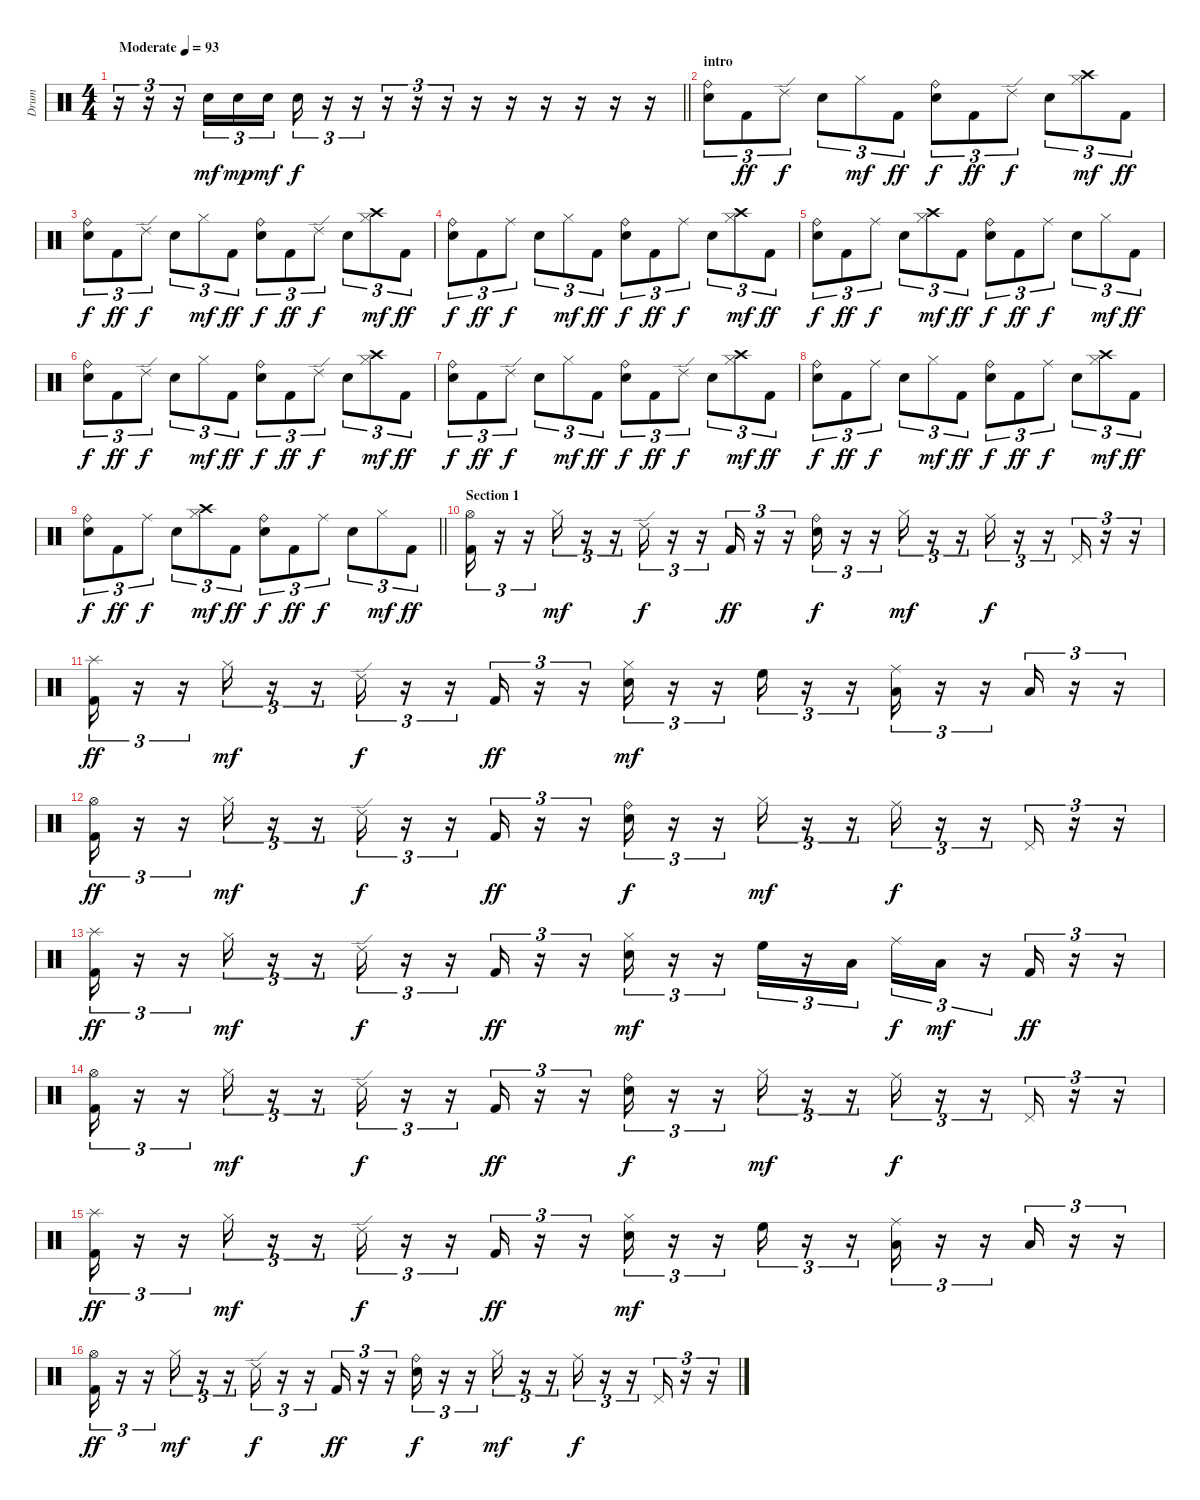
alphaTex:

\track ("Drum" "Drum") {instrument percussion}
\staff {score}
\articulation defaults
\ts (4 4)
\tempo (93 "Moderate")
\clef neutral
\barLineRight lightlight
\ks c
r.16{tu (3 2) dy mf} r.16{tu (3 2)} r.16{tu (3 2)} "Electric Snare (hit)".16{tu (3 2)} "Electric Snare (hit)".16{tu (3 2) dy mp} "Electric Snare (hit)".16{tu (3 2) dy mf} "Electric Snare (hit)".16{tu (3 2) dy f} r.16{tu (3 2)} r.16{tu (3 2)} r.16{tu (3 2)} r.16{tu (3 2)} r.16{tu (3 2)} r.16 r.16 r.16 r.16 r.16 r.16 |
\section ("" "intro")
("Electric Snare (hit)" "Ride (bell)").8{tu (3 2)} "Kick (hit) 2".8{tu (3 2) dy ff} "Ride (edge) 2".8{tu (3 2) dy f} "Electric Snare (hit)".8{tu (3 2)} "Hi-Hat (closed)".8{tu (3 2) dy mf} "Kick (hit) 2".8{tu (3 2) dy ff} ("Electric Snare (hit)" "Ride (bell)").8{tu (3 2) dy f} "Kick (hit) 2".8{tu (3 2) dy ff} "Ride (edge) 2".8{tu (3 2) dy f} "Electric Snare (hit)".8{tu (3 2)} ("Hi-Hat (closed)" "Crash high (hit)").8{tu (3 2) dy mf} "Kick (hit) 2".8{tu (3 2) dy ff} |
("Electric Snare (hit)" "Ride (bell)").8{tu (3 2) dy f} "Kick (hit) 2".8{tu (3 2) dy ff} "Ride (edge) 2".8{tu (3 2) dy f} "Electric Snare (hit)".8{tu (3 2)} "Hi-Hat (closed)".8{tu (3 2) dy mf} "Kick (hit) 2".8{tu (3 2) dy ff} ("Electric Snare (hit)" "Ride (bell)").8{tu (3 2) dy f} "Kick (hit) 2".8{tu (3 2) dy ff} "Ride (edge) 2".8{tu (3 2) dy f} "Electric Snare (hit)".8{tu (3 2)} ("Hi-Hat (closed)" "Crash high (hit)").8{tu (3 2) dy mf} "Kick (hit) 2".8{tu (3 2) dy ff} |
("Electric Snare (hit)" "Ride (bell)").8{tu (3 2) dy f} "Kick (hit) 2".8{tu (3 2) dy ff} "Ride (middle)".8{tu (3 2) dy f} "Electric Snare (hit)".8{tu (3 2)} "Hi-Hat (closed)".8{tu (3 2) dy mf} "Kick (hit) 2".8{tu (3 2) dy ff} ("Electric Snare (hit)" "Ride (bell)").8{tu (3 2) dy f} "Kick (hit) 2".8{tu (3 2) dy ff} "Ride (middle)".8{tu (3 2) dy f} "Electric Snare (hit)".8{tu (3 2)} ("Hi-Hat (closed)" "Crash high (hit)").8{tu (3 2) dy mf} "Kick (hit) 2".8{tu (3 2) dy ff} |
("Electric Snare (hit)" "Ride (bell)").8{tu (3 2) dy f} "Kick (hit) 2".8{tu (3 2) dy ff} "Ride (middle)".8{tu (3 2) dy f} "Electric Snare (hit)".8{tu (3 2)} ("Hi-Hat (closed)" "Crash high (hit)").8{tu (3 2) dy mf} "Kick (hit) 2".8{tu (3 2) dy ff} ("Electric Snare (hit)" "Ride (bell)").8{tu (3 2) dy f} "Kick (hit) 2".8{tu (3 2) dy ff} "Ride (middle)".8{tu (3 2) dy f} "Electric Snare (hit)".8{tu (3 2)} "Hi-Hat (closed)".8{tu (3 2) dy mf} "Kick (hit) 2".8{tu (3 2) dy ff} |
("Electric Snare (hit)" "Ride (bell)").8{tu (3 2) dy f} "Kick (hit) 2".8{tu (3 2) dy ff} "Ride (edge) 2".8{tu (3 2) dy f} "Electric Snare (hit)".8{tu (3 2)} "Hi-Hat (closed)".8{tu (3 2) dy mf} "Kick (hit) 2".8{tu (3 2) dy ff} ("Electric Snare (hit)" "Ride (bell)").8{tu (3 2) dy f} "Kick (hit) 2".8{tu (3 2) dy ff} "Ride (edge) 2".8{tu (3 2) dy f} "Electric Snare (hit)".8{tu (3 2)} ("Hi-Hat (closed)" "Crash high (hit)").8{tu (3 2) dy mf} "Kick (hit) 2".8{tu (3 2) dy ff} |
("Electric Snare (hit)" "Ride (bell)").8{tu (3 2) dy f} "Kick (hit) 2".8{tu (3 2) dy ff} "Ride (edge) 2".8{tu (3 2) dy f} "Electric Snare (hit)".8{tu (3 2)} "Hi-Hat (closed)".8{tu (3 2) dy mf} "Kick (hit) 2".8{tu (3 2) dy ff} ("Electric Snare (hit)" "Ride (bell)").8{tu (3 2) dy f} "Kick (hit) 2".8{tu (3 2) dy ff} "Ride (edge) 2".8{tu (3 2) dy f} "Electric Snare (hit)".8{tu (3 2)} ("Hi-Hat (closed)" "Crash high (hit)").8{tu (3 2) dy mf} "Kick (hit) 2".8{tu (3 2) dy ff} |
("Electric Snare (hit)" "Ride (bell)").8{tu (3 2) dy f} "Kick (hit) 2".8{tu (3 2) dy ff} "Ride (middle)".8{tu (3 2) dy f} "Electric Snare (hit)".8{tu (3 2)} "Hi-Hat (closed)".8{tu (3 2) dy mf} "Kick (hit) 2".8{tu (3 2) dy ff} ("Electric Snare (hit)" "Ride (bell)").8{tu (3 2) dy f} "Kick (hit) 2".8{tu (3 2) dy ff} "Ride (middle)".8{tu (3 2) dy f} "Electric Snare (hit)".8{tu (3 2)} ("Hi-Hat (closed)" "Crash high (hit)").8{tu (3 2) dy mf} "Kick (hit) 2".8{tu (3 2) dy ff} |
\barLineRight lightlight
("Electric Snare (hit)" "Ride (bell)").8{tu (3 2) dy f} "Kick (hit) 2".8{tu (3 2) dy ff} "Ride (middle)".8{tu (3 2) dy f} "Electric Snare (hit)".8{tu (3 2)} ("Hi-Hat (closed)" "Crash high (hit)").8{tu (3 2) dy mf} "Kick (hit) 2".8{tu (3 2) dy ff} ("Electric Snare (hit)" "Ride (bell)").8{tu (3 2) dy f} "Kick (hit) 2".8{tu (3 2) dy ff} "Ride (middle)".8{tu (3 2) dy f} "Electric Snare (hit)".8{tu (3 2)} "Hi-Hat (closed)".8{tu (3 2) dy mf} "Kick (hit) 2".8{tu (3 2) dy ff} |
\section ("" "Section 1")
("Kick (hit) 2" "Hi-Hat (open)").16{tu (3 2)} r.16{tu (3 2)} r.16{tu (3 2)} "Hi-Hat (closed)".16{tu (3 2) dy mf} r.16{tu (3 2)} r.16{tu (3 2)} "Ride (edge) 2".16{tu (3 2) dy f} r.16{tu (3 2)} r.16{tu (3 2)} "Kick (hit) 2".16{tu (3 2) dy ff} r.16{tu (3 2)} r.16{tu (3 2)} ("Electric Snare (hit)" "Ride (bell)").16{tu (3 2) dy f} r.16{tu (3 2)} r.16{tu (3 2)} "Hi-Hat (closed)".16{tu (3 2) dy mf} r.16{tu (3 2)} r.16{tu (3 2)} "Ride (middle)".16{tu (3 2) dy f} r.16{tu (3 2)} r.16{tu (3 2)} "Pedal Hi-Hat (hit)".16{tu (3 2)} r.16{tu (3 2)} r.16{tu (3 2)} |
("Kick (hit) 2" "Splash (hit)").16{tu (3 2) dy ff} r.16{tu (3 2)} r.16{tu (3 2)} "Hi-Hat (closed)".16{tu (3 2) dy mf} r.16{tu (3 2)} r.16{tu (3 2)} "Ride (edge) 2".16{tu (3 2) dy f} r.16{tu (3 2)} r.16{tu (3 2)} "Kick (hit) 2".16{tu (3 2) dy ff} r.16{tu (3 2)} r.16{tu (3 2)} ("Electric Snare (hit)" "Hi-Hat (closed)").16{tu (3 2) dy mf} r.16{tu (3 2)} r.16{tu (3 2)} "High Floor Tom (hit)".16{tu (3 2)} r.16{tu (3 2)} r.16{tu (3 2)} ("Low Tom (hit)" "Ride (middle)").16{tu (3 2)} r.16{tu (3 2)} r.16{tu (3 2)} "Low Floor Tom (hit)".16{tu (3 2)} r.16{tu (3 2)} r.16{tu (3 2)} |
("Kick (hit) 2" "Hi-Hat (open)").16{tu (3 2) dy ff} r.16{tu (3 2)} r.16{tu (3 2)} "Hi-Hat (closed)".16{tu (3 2) dy mf} r.16{tu (3 2)} r.16{tu (3 2)} "Ride (edge) 2".16{tu (3 2) dy f} r.16{tu (3 2)} r.16{tu (3 2)} "Kick (hit) 2".16{tu (3 2) dy ff} r.16{tu (3 2)} r.16{tu (3 2)} ("Electric Snare (hit)" "Ride (bell)").16{tu (3 2) dy f} r.16{tu (3 2)} r.16{tu (3 2)} "Hi-Hat (closed)".16{tu (3 2) dy mf} r.16{tu (3 2)} r.16{tu (3 2)} "Ride (middle)".16{tu (3 2) dy f} r.16{tu (3 2)} r.16{tu (3 2)} "Pedal Hi-Hat (hit)".16{tu (3 2)} r.16{tu (3 2)} r.16{tu (3 2)} |
("Kick (hit) 2" "Splash (hit)").16{tu (3 2) dy ff} r.16{tu (3 2)} r.16{tu (3 2)} "Hi-Hat (closed)".16{tu (3 2) dy mf} r.16{tu (3 2)} r.16{tu (3 2)} "Ride (edge) 2".16{tu (3 2) dy f} r.16{tu (3 2)} r.16{tu (3 2)} "Kick (hit) 2".16{tu (3 2) dy ff} r.16{tu (3 2)} r.16{tu (3 2)} ("Electric Snare (hit)" "Hi-Hat (closed)").16{tu (3 2) dy mf} r.16{tu (3 2)} r.16{tu (3 2)} "High Floor Tom (hit)".16{tu (3 2)} r.16{tu (3 2)} "Low Tom (hit)".16{tu (3 2)} "Ride (middle)".16{tu (3 2) dy f} "Low Floor Tom (hit)".16{tu (3 2) dy mf} r.16{tu (3 2)} "Kick (hit) 2".16{tu (3 2) dy ff} r.16{tu (3 2)} r.16{tu (3 2)} |
("Kick (hit) 2" "Hi-Hat (open)").16{tu (3 2)} r.16{tu (3 2)} r.16{tu (3 2)} "Hi-Hat (closed)".16{tu (3 2) dy mf} r.16{tu (3 2)} r.16{tu (3 2)} "Ride (edge) 2".16{tu (3 2) dy f} r.16{tu (3 2)} r.16{tu (3 2)} "Kick (hit) 2".16{tu (3 2) dy ff} r.16{tu (3 2)} r.16{tu (3 2)} ("Electric Snare (hit)" "Ride (bell)").16{tu (3 2) dy f} r.16{tu (3 2)} r.16{tu (3 2)} "Hi-Hat (closed)".16{tu (3 2) dy mf} r.16{tu (3 2)} r.16{tu (3 2)} "Ride (middle)".16{tu (3 2) dy f} r.16{tu (3 2)} r.16{tu (3 2)} "Pedal Hi-Hat (hit)".16{tu (3 2)} r.16{tu (3 2)} r.16{tu (3 2)} |
("Kick (hit) 2" "Splash (hit)").16{tu (3 2) dy ff} r.16{tu (3 2)} r.16{tu (3 2)} "Hi-Hat (closed)".16{tu (3 2) dy mf} r.16{tu (3 2)} r.16{tu (3 2)} "Ride (edge) 2".16{tu (3 2) dy f} r.16{tu (3 2)} r.16{tu (3 2)} "Kick (hit) 2".16{tu (3 2) dy ff} r.16{tu (3 2)} r.16{tu (3 2)} ("Electric Snare (hit)" "Hi-Hat (closed)").16{tu (3 2) dy mf} r.16{tu (3 2)} r.16{tu (3 2)} "High Floor Tom (hit)".16{tu (3 2)} r.16{tu (3 2)} r.16{tu (3 2)} ("Low Tom (hit)" "Ride (middle)").16{tu (3 2)} r.16{tu (3 2)} r.16{tu (3 2)} "Low Floor Tom (hit)".16{tu (3 2)} r.16{tu (3 2)} r.16{tu (3 2)} |
("Kick (hit) 2" "Hi-Hat (open)").16{tu (3 2) dy ff} r.16{tu (3 2)} r.16{tu (3 2)} "Hi-Hat (closed)".16{tu (3 2) dy mf} r.16{tu (3 2)} r.16{tu (3 2)} "Ride (edge) 2".16{tu (3 2) dy f} r.16{tu (3 2)} r.16{tu (3 2)} "Kick (hit) 2".16{tu (3 2) dy ff} r.16{tu (3 2)} r.16{tu (3 2)} ("Electric Snare (hit)" "Ride (bell)").16{tu (3 2) dy f} r.16{tu (3 2)} r.16{tu (3 2)} "Hi-Hat (closed)".16{tu (3 2) dy mf} r.16{tu (3 2)} r.16{tu (3 2)} "Ride (middle)".16{tu (3 2) dy f} r.16{tu (3 2)} r.16{tu (3 2)} "Pedal Hi-Hat (hit)".16{tu (3 2)} r.16{tu (3 2)} r.16{tu (3 2)}
